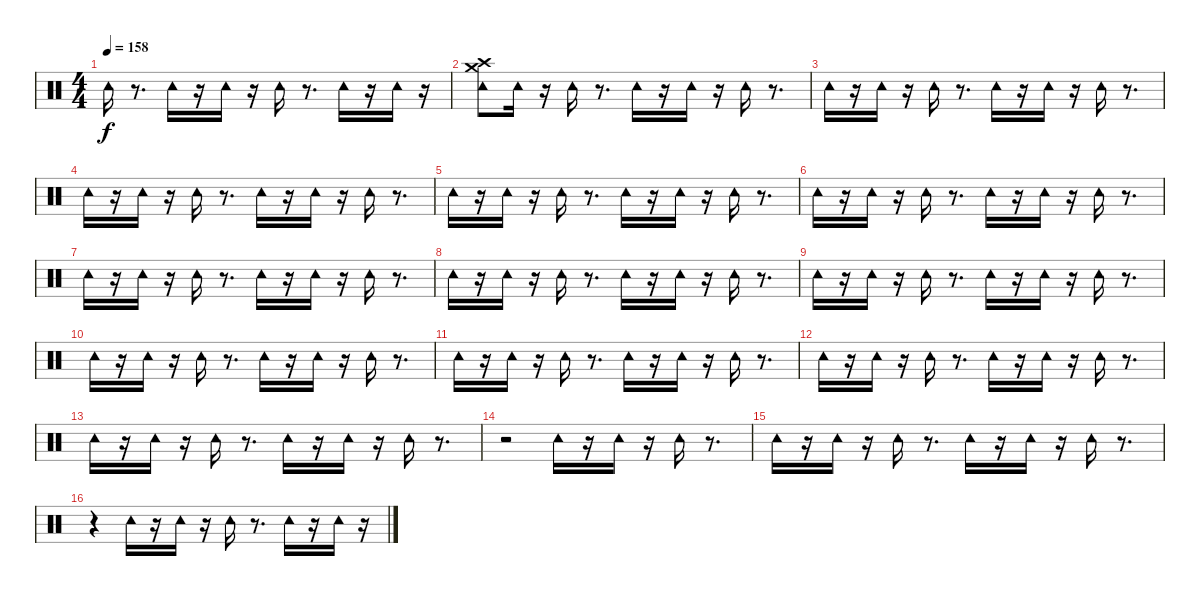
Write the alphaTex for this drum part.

\track "" {instrument percussion}
\staff {score}
\articulation defaults
\ts (4 4)
\tempo 158
\clef neutral
\ks c "Tambourine (hit)".16{dy f}
r.8{d} "Tambourine (hit)".16 r.16 "Tambourine (hit)".16 r.16 "Tambourine (hit)".16 r.8{d} "Tambourine (hit)".16 r.16 "Tambourine (hit)".16 r.16 |
("Crash medium (hit)" "Crash high (hit)" "Tambourine (hit)").8 "Tambourine (hit)".16 r.16 "Tambourine (hit)".16 r.8{d} "Tambourine (hit)".16 r.16 "Tambourine (hit)".16 r.16 "Tambourine (hit)".16 r.8{d} |
"Tambourine (hit)".16 r.16 "Tambourine (hit)".16 r.16 "Tambourine (hit)".16 r.8{d} "Tambourine (hit)".16 r.16 "Tambourine (hit)".16 r.16 "Tambourine (hit)".16 r.8{d} |
"Tambourine (hit)".16 r.16 "Tambourine (hit)".16 r.16 "Tambourine (hit)".16 r.8{d} "Tambourine (hit)".16 r.16 "Tambourine (hit)".16 r.16 "Tambourine (hit)".16 r.8{d} |
"Tambourine (hit)".16 r.16 "Tambourine (hit)".16 r.16 "Tambourine (hit)".16 r.8{d} "Tambourine (hit)".16 r.16 "Tambourine (hit)".16 r.16 "Tambourine (hit)".16 r.8{d} |
"Tambourine (hit)".16 r.16 "Tambourine (hit)".16 r.16 "Tambourine (hit)".16 r.8{d} "Tambourine (hit)".16 r.16 "Tambourine (hit)".16 r.16 "Tambourine (hit)".16 r.8{d} |
"Tambourine (hit)".16 r.16 "Tambourine (hit)".16 r.16 "Tambourine (hit)".16 r.8{d} "Tambourine (hit)".16 r.16 "Tambourine (hit)".16 r.16 "Tambourine (hit)".16 r.8{d} |
"Tambourine (hit)".16 r.16 "Tambourine (hit)".16 r.16 "Tambourine (hit)".16 r.8{d} "Tambourine (hit)".16 r.16 "Tambourine (hit)".16 r.16 "Tambourine (hit)".16 r.8{d} |
"Tambourine (hit)".16 r.16 "Tambourine (hit)".16 r.16 "Tambourine (hit)".16 r.8{d} "Tambourine (hit)".16 r.16 "Tambourine (hit)".16 r.16 "Tambourine (hit)".16 r.8{d} |
"Tambourine (hit)".16 r.16 "Tambourine (hit)".16 r.16 "Tambourine (hit)".16 r.8{d} "Tambourine (hit)".16 r.16 "Tambourine (hit)".16 r.16 "Tambourine (hit)".16 r.8{d} |
"Tambourine (hit)".16 r.16 "Tambourine (hit)".16 r.16 "Tambourine (hit)".16 r.8{d} "Tambourine (hit)".16 r.16 "Tambourine (hit)".16 r.16 "Tambourine (hit)".16 r.8{d} |
"Tambourine (hit)".16 r.16 "Tambourine (hit)".16 r.16 "Tambourine (hit)".16 r.8{d} "Tambourine (hit)".16 r.16 "Tambourine (hit)".16 r.16 "Tambourine (hit)".16 r.8{d} |
"Tambourine (hit)".16 r.16 "Tambourine (hit)".16 r.16 "Tambourine (hit)".16 r.8{d} "Tambourine (hit)".16 r.16 "Tambourine (hit)".16 r.16 "Tambourine (hit)".16 r.8{d} |
r.2 "Tambourine (hit)".16 r.16 "Tambourine (hit)".16 r.16 "Tambourine (hit)".16 r.8{d} |
"Tambourine (hit)".16 r.16 "Tambourine (hit)".16 r.16 "Tambourine (hit)".16 r.8{d} "Tambourine (hit)".16 r.16 "Tambourine (hit)".16 r.16 "Tambourine (hit)".16 r.8{d} |
r.4 "Tambourine (hit)".16 r.16 "Tambourine (hit)".16 r.16 "Tambourine (hit)".16 r.8{d} "Tambourine (hit)".16 r.16 "Tambourine (hit)".16 r.16
